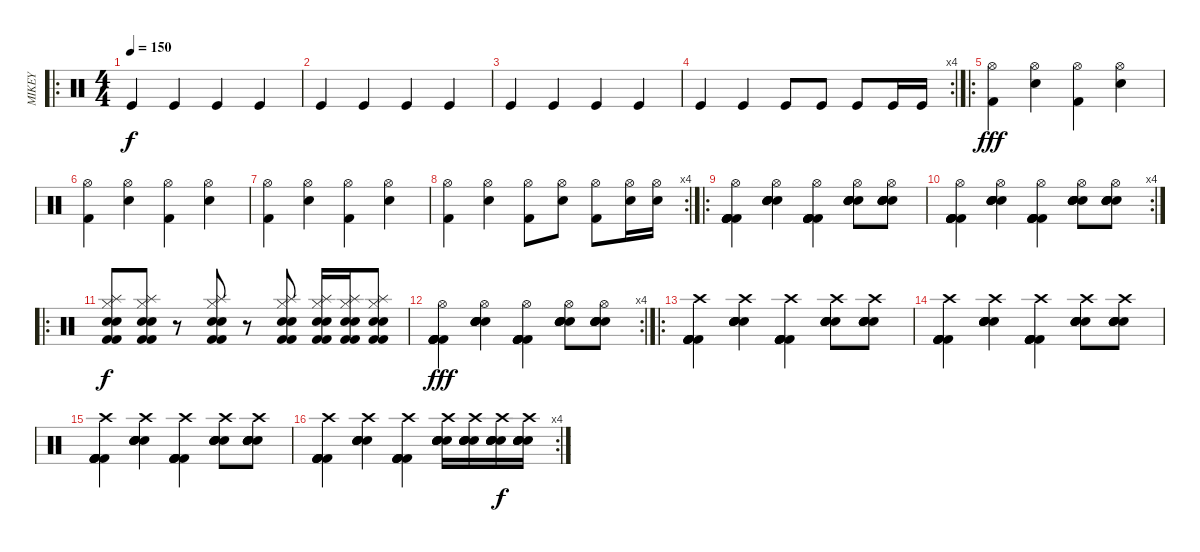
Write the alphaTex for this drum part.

\track ("MIKEY" "MIKEY") {instrument percussion}
\staff {score}
\articulation defaults
\ro
\ts (4 4)
\tempo 150
\clef neutral
\ks c "Kick (hit)".4{dy f} "Kick (hit)".4 "Kick (hit)".4 "Kick (hit)".4
|
"Kick (hit)".4 "Kick (hit)".4 "Kick (hit)".4 "Kick (hit)".4 |
"Kick (hit)".4 "Kick (hit)".4 "Kick (hit)".4 "Kick (hit)".4 |
\rc 4 "Kick (hit)".4 "Kick (hit)".4 "Kick (hit)".8 "Kick (hit)".8 "Kick (hit)".8 "Kick (hit)".16 "Kick (hit)".16
|
\ro
("Hi-Hat (open)" "Kick (hit) 2").4{dy fff} ("Hi-Hat (open)" "Electric Snare (hit)").4 ("Hi-Hat (open)" "Kick (hit) 2").4 ("Hi-Hat (open)" "Electric Snare (hit)").4 |
("Hi-Hat (open)" "Kick (hit) 2").4 ("Hi-Hat (open)" "Electric Snare (hit)").4 ("Hi-Hat (open)" "Kick (hit) 2").4 ("Hi-Hat (open)" "Electric Snare (hit)").4 |
("Hi-Hat (open)" "Kick (hit) 2").4 ("Hi-Hat (open)" "Electric Snare (hit)").4 ("Hi-Hat (open)" "Kick (hit) 2").4 ("Hi-Hat (open)" "Electric Snare (hit)").4 |
\rc 4
("Hi-Hat (open)" "Kick (hit) 2").4 ("Hi-Hat (open)" "Electric Snare (hit)").4 ("Hi-Hat (open)" "Kick (hit) 2").8 ("Hi-Hat (open)" "Electric Snare (hit)").8 ("Hi-Hat (open)" "Kick (hit) 2").8 ("Hi-Hat (open)" "Electric Snare (hit)").16 ("Hi-Hat (open)" "Electric Snare (hit)").16 |
\ro
("Hi-Hat (open)" "Kick (hit) 2" "Kick (hit) 2" "Kick (hit) 2" "Kick (hit) 2" "Kick (hit) 2").4 ("Hi-Hat (open)" "Electric Snare (hit)" "Electric Snare (hit)" "Electric Snare (hit)" "Electric Snare (hit)" "Electric Snare (hit)").4 ("Hi-Hat (open)" "Kick (hit) 2" "Kick (hit) 2" "Kick (hit) 2" "Kick (hit) 2" "Kick (hit) 2").4 ("Hi-Hat (open)" "Electric Snare (hit)" "Electric Snare (hit)" "Electric Snare (hit)" "Electric Snare (hit)" "Electric Snare (hit)").8 ("Hi-Hat (open)" "Electric Snare (hit)" "Electric Snare (hit)" "Electric Snare (hit)" "Electric Snare (hit)" "Electric Snare (hit)").8 |
\rc 4
("Hi-Hat (open)" "Kick (hit) 2" "Kick (hit) 2" "Kick (hit) 2" "Kick (hit) 2" "Kick (hit) 2").4 ("Hi-Hat (open)" "Electric Snare (hit)" "Electric Snare (hit)" "Electric Snare (hit)" "Electric Snare (hit)" "Electric Snare (hit)").4 ("Hi-Hat (open)" "Kick (hit) 2" "Kick (hit) 2" "Kick (hit) 2" "Kick (hit) 2" "Kick (hit) 2").4 ("Hi-Hat (open)" "Electric Snare (hit)" "Electric Snare (hit)" "Electric Snare (hit)" "Electric Snare (hit)" "Electric Snare (hit)").8 ("Hi-Hat (open)" "Electric Snare (hit)" "Electric Snare (hit)" "Electric Snare (hit)" "Electric Snare (hit)" "Electric Snare (hit)").8 |
\ro
("Splash (hit)" "Hi-Hat (closed)" "Snare (hit) 2" "Kick (hit) 2" "Electric Snare (hit)" "Kick (hit) 2").8{dy f} ("Splash (hit)" "Hi-Hat (closed)" "Snare (hit) 2" "Kick (hit) 2" "Electric Snare (hit)" "Kick (hit) 2").8 r.8 ("Splash (hit)" "Hi-Hat (closed)" "Snare (hit) 2" "Kick (hit) 2" "Electric Snare (hit)" "Kick (hit) 2").8 r.8 ("Splash (hit)" "Hi-Hat (closed)" "Snare (hit) 2" "Kick (hit) 2" "Electric Snare (hit)" "Kick (hit) 2").8 ("Splash (hit)" "Hi-Hat (closed)" "Snare (hit) 2" "Kick (hit) 2" "Electric Snare (hit)" "Kick (hit) 2").16 ("Splash (hit)" "Hi-Hat (closed)" "Snare (hit) 2" "Kick (hit) 2" "Electric Snare (hit)" "Kick (hit) 2").16 ("Splash (hit)" "Hi-Hat (closed)" "Snare (hit) 2" "Kick (hit) 2" "Electric Snare (hit)" "Kick (hit) 2").8 |
\rc 4
("Hi-Hat (open)" "Kick (hit) 2" "Kick (hit) 2" "Kick (hit) 2" "Kick (hit) 2" "Kick (hit) 2").4{dy fff} ("Hi-Hat (open)" "Electric Snare (hit)" "Electric Snare (hit)" "Electric Snare (hit)" "Electric Snare (hit)" "Electric Snare (hit)").4 ("Hi-Hat (open)" "Kick (hit) 2" "Kick (hit) 2" "Kick (hit) 2" "Kick (hit) 2" "Kick (hit) 2").4 ("Hi-Hat (open)" "Electric Snare (hit)" "Electric Snare (hit)" "Electric Snare (hit)" "Electric Snare (hit)" "Electric Snare (hit)").8 ("Hi-Hat (open)" "Electric Snare (hit)" "Electric Snare (hit)" "Electric Snare (hit)" "Electric Snare (hit)" "Electric Snare (hit)").8 |
\ro
("Crash high (hit)" "Kick (hit) 2" "Kick (hit) 2" "Kick (hit) 2" "Kick (hit) 2" "Kick (hit) 2").4 ("Crash high (hit)" "Electric Snare (hit)" "Electric Snare (hit)" "Electric Snare (hit)" "Electric Snare (hit)" "Electric Snare (hit)").4 ("Crash high (hit)" "Kick (hit) 2" "Kick (hit) 2" "Kick (hit) 2" "Kick (hit) 2" "Kick (hit) 2").4 ("Crash high (hit)" "Electric Snare (hit)" "Electric Snare (hit)" "Electric Snare (hit)" "Electric Snare (hit)" "Electric Snare (hit)").8 ("Crash high (hit)" "Electric Snare (hit)" "Electric Snare (hit)" "Electric Snare (hit)" "Electric Snare (hit)" "Electric Snare (hit)").8 |
("Crash high (hit)" "Kick (hit) 2" "Kick (hit) 2" "Kick (hit) 2" "Kick (hit) 2" "Kick (hit) 2").4 ("Crash high (hit)" "Electric Snare (hit)" "Electric Snare (hit)" "Electric Snare (hit)" "Electric Snare (hit)" "Electric Snare (hit)").4 ("Crash high (hit)" "Kick (hit) 2" "Kick (hit) 2" "Kick (hit) 2" "Kick (hit) 2" "Kick (hit) 2").4 ("Crash high (hit)" "Electric Snare (hit)" "Electric Snare (hit)" "Electric Snare (hit)" "Electric Snare (hit)" "Electric Snare (hit)").8 ("Crash high (hit)" "Electric Snare (hit)" "Electric Snare (hit)" "Electric Snare (hit)" "Electric Snare (hit)" "Electric Snare (hit)").8 |
("Crash high (hit)" "Kick (hit) 2" "Kick (hit) 2" "Kick (hit) 2" "Kick (hit) 2" "Kick (hit) 2").4 ("Crash high (hit)" "Electric Snare (hit)" "Electric Snare (hit)" "Electric Snare (hit)" "Electric Snare (hit)" "Electric Snare (hit)").4 ("Crash high (hit)" "Kick (hit) 2" "Kick (hit) 2" "Kick (hit) 2" "Kick (hit) 2" "Kick (hit) 2").4 ("Crash high (hit)" "Electric Snare (hit)" "Electric Snare (hit)" "Electric Snare (hit)" "Electric Snare (hit)" "Electric Snare (hit)").8 ("Crash high (hit)" "Electric Snare (hit)" "Electric Snare (hit)" "Electric Snare (hit)" "Electric Snare (hit)" "Electric Snare (hit)").8 |
\rc 4
("Crash high (hit)" "Kick (hit) 2" "Kick (hit) 2" "Kick (hit) 2" "Kick (hit) 2" "Kick (hit) 2").4 ("Crash high (hit)" "Electric Snare (hit)" "Electric Snare (hit)" "Electric Snare (hit)" "Electric Snare (hit)" "Electric Snare (hit)").4 ("Crash high (hit)" "Kick (hit) 2" "Kick (hit) 2" "Kick (hit) 2" "Kick (hit) 2" "Kick (hit) 2").4 ("Crash high (hit)" "Electric Snare (hit)" "Electric Snare (hit)" "Electric Snare (hit)" "Electric Snare (hit)" "Electric Snare (hit)").16 ("Crash high (hit)" "Electric Snare (hit)" "Electric Snare (hit)" "Electric Snare (hit)" "Electric Snare (hit)" "Electric Snare (hit)").16 ("Crash high (hit)" "Electric Snare (hit)" "Electric Snare (hit)" "Electric Snare (hit)" "Electric Snare (hit)" "Electric Snare (hit)").16{dy f} ("Crash high (hit)" "Electric Snare (hit)" "Electric Snare (hit)" "Electric Snare (hit)" "Electric Snare (hit)" "Electric Snare (hit)").16
